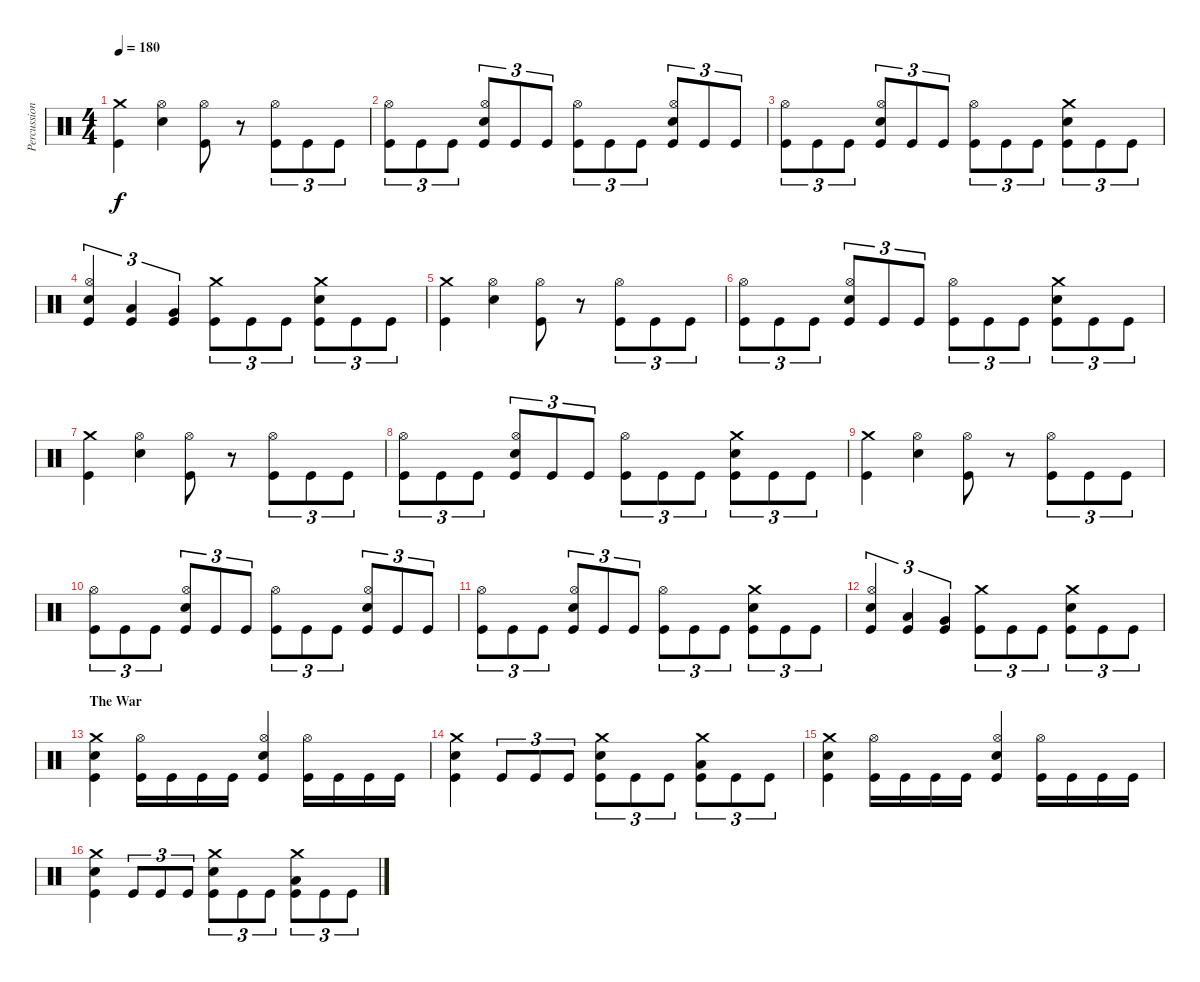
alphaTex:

\track ("Percussion" "Percussion") {instrument percussion}
\staff {score}
\articulation defaults
\ts (4 4)
\tempo 180
\clef neutral
\ks c
("Crash medium (hit)" "Kick (hit)").4{dy f} ("Hi-Hat (open)" "Electric Snare (hit)").4 ("Hi-Hat (open)" "Kick (hit)").8 r.8 ("Hi-Hat (open)" "Kick (hit)").8{tu (3 2)} "Kick (hit)".8{tu (3 2)} "Kick (hit)".8{tu (3 2)} |
("Hi-Hat (open)" "Kick (hit)").8{tu (3 2)} "Kick (hit)".8{tu (3 2)} "Kick (hit)".8{tu (3 2)} ("Hi-Hat (open)" "Electric Snare (hit)" "Kick (hit)").8{tu (3 2)} "Kick (hit)".8{tu (3 2)} "Kick (hit)".8{tu (3 2)} ("Hi-Hat (open)" "Kick (hit)").8{tu (3 2)} "Kick (hit)".8{tu (3 2)} "Kick (hit)".8{tu (3 2)} ("Hi-Hat (open)" "Electric Snare (hit)" "Kick (hit)").8{tu (3 2)} "Kick (hit)".8{tu (3 2)} "Kick (hit)".8{tu (3 2)} |
("Hi-Hat (open)" "Kick (hit)").8{tu (3 2)} "Kick (hit)".8{tu (3 2)} "Kick (hit)".8{tu (3 2)} ("Hi-Hat (open)" "Electric Snare (hit)" "Kick (hit)").8{tu (3 2)} "Kick (hit)".8{tu (3 2)} "Kick (hit)".8{tu (3 2)} ("Hi-Hat (open)" "Kick (hit)").8{tu (3 2)} "Kick (hit)".8{tu (3 2)} "Kick (hit)".8{tu (3 2)} ("Crash medium (hit)" "Electric Snare (hit)" "Kick (hit)").8{tu (3 2)} "Kick (hit)".8{tu (3 2)} "Kick (hit)".8{tu (3 2)} |
("Hi-Hat (open)" "Electric Snare (hit)" "Kick (hit)").4{tu (3 2)} ("Low Tom (hit)" "Kick (hit)").4{tu (3 2)} ("Very Low Tom (hit)" "Kick (hit)").4{tu (3 2)} ("Crash medium (hit)" "Kick (hit)").8{tu (3 2)} "Kick (hit)".8{tu (3 2)} "Kick (hit)".8{tu (3 2)} ("Crash medium (hit)" "Electric Snare (hit)" "Kick (hit)").8{tu (3 2)} "Kick (hit)".8{tu (3 2)} "Kick (hit)".8{tu (3 2)} |
("Crash medium (hit)" "Kick (hit)").4 ("Hi-Hat (open)" "Electric Snare (hit)").4 ("Hi-Hat (open)" "Kick (hit)").8 r.8 ("Hi-Hat (open)" "Kick (hit)").8{tu (3 2)} "Kick (hit)".8{tu (3 2)} "Kick (hit)".8{tu (3 2)} |
("Hi-Hat (open)" "Kick (hit)").8{tu (3 2)} "Kick (hit)".8{tu (3 2)} "Kick (hit)".8{tu (3 2)} ("Hi-Hat (open)" "Electric Snare (hit)" "Kick (hit)").8{tu (3 2)} "Kick (hit)".8{tu (3 2)} "Kick (hit)".8{tu (3 2)} ("Hi-Hat (open)" "Kick (hit)").8{tu (3 2)} "Kick (hit)".8{tu (3 2)} "Kick (hit)".8{tu (3 2)} ("Crash medium (hit)" "Electric Snare (hit)" "Kick (hit)").8{tu (3 2)} "Kick (hit)".8{tu (3 2)} "Kick (hit)".8{tu (3 2)} |
("Crash medium (hit)" "Kick (hit)").4 ("Hi-Hat (open)" "Electric Snare (hit)").4 ("Hi-Hat (open)" "Kick (hit)").8 r.8 ("Hi-Hat (open)" "Kick (hit)").8{tu (3 2)} "Kick (hit)".8{tu (3 2)} "Kick (hit)".8{tu (3 2)} |
("Hi-Hat (open)" "Kick (hit)").8{tu (3 2)} "Kick (hit)".8{tu (3 2)} "Kick (hit)".8{tu (3 2)} ("Hi-Hat (open)" "Electric Snare (hit)" "Kick (hit)").8{tu (3 2)} "Kick (hit)".8{tu (3 2)} "Kick (hit)".8{tu (3 2)} ("Hi-Hat (open)" "Kick (hit)").8{tu (3 2)} "Kick (hit)".8{tu (3 2)} "Kick (hit)".8{tu (3 2)} ("Crash medium (hit)" "Electric Snare (hit)" "Kick (hit)").8{tu (3 2)} "Kick (hit)".8{tu (3 2)} "Kick (hit)".8{tu (3 2)} |
("Crash medium (hit)" "Kick (hit)").4 ("Hi-Hat (open)" "Electric Snare (hit)").4 ("Hi-Hat (open)" "Kick (hit)").8 r.8 ("Hi-Hat (open)" "Kick (hit)").8{tu (3 2)} "Kick (hit)".8{tu (3 2)} "Kick (hit)".8{tu (3 2)} |
("Hi-Hat (open)" "Kick (hit)").8{tu (3 2)} "Kick (hit)".8{tu (3 2)} "Kick (hit)".8{tu (3 2)} ("Hi-Hat (open)" "Electric Snare (hit)" "Kick (hit)").8{tu (3 2)} "Kick (hit)".8{tu (3 2)} "Kick (hit)".8{tu (3 2)} ("Hi-Hat (open)" "Kick (hit)").8{tu (3 2)} "Kick (hit)".8{tu (3 2)} "Kick (hit)".8{tu (3 2)} ("Hi-Hat (open)" "Electric Snare (hit)" "Kick (hit)").8{tu (3 2)} "Kick (hit)".8{tu (3 2)} "Kick (hit)".8{tu (3 2)} |
("Hi-Hat (open)" "Kick (hit)").8{tu (3 2)} "Kick (hit)".8{tu (3 2)} "Kick (hit)".8{tu (3 2)} ("Hi-Hat (open)" "Electric Snare (hit)" "Kick (hit)").8{tu (3 2)} "Kick (hit)".8{tu (3 2)} "Kick (hit)".8{tu (3 2)} ("Hi-Hat (open)" "Kick (hit)").8{tu (3 2)} "Kick (hit)".8{tu (3 2)} "Kick (hit)".8{tu (3 2)} ("Crash medium (hit)" "Electric Snare (hit)" "Kick (hit)").8{tu (3 2)} "Kick (hit)".8{tu (3 2)} "Kick (hit)".8{tu (3 2)} |
("Hi-Hat (open)" "Electric Snare (hit)" "Kick (hit)").4{tu (3 2)} ("Low Tom (hit)" "Kick (hit)").4{tu (3 2)} ("Very Low Tom (hit)" "Kick (hit)").4{tu (3 2)} ("Crash medium (hit)" "Kick (hit)").8{tu (3 2)} "Kick (hit)".8{tu (3 2)} "Kick (hit)".8{tu (3 2)} ("Crash medium (hit)" "Electric Snare (hit)" "Kick (hit)").8{tu (3 2)} "Kick (hit)".8{tu (3 2)} "Kick (hit)".8{tu (3 2)} |
\section ("" "The War")
("Crash medium (hit)" "Snare (hit) 2" "Kick (hit)").4 ("Hi-Hat (open)" "Kick (hit)").16 "Kick (hit)".16 "Kick (hit)".16 "Kick (hit)".16 ("Hi-Hat (open)" "Snare (hit) 2" "Kick (hit)").4 ("Hi-Hat (open)" "Kick (hit)").16 "Kick (hit)".16 "Kick (hit)".16 "Kick (hit)".16 |
("Crash medium (hit)" "Electric Snare (hit)" "Kick (hit)").4 "Kick (hit)".8{tu (3 2)} "Kick (hit)".8{tu (3 2)} "Kick (hit)".8{tu (3 2)} ("Crash medium (hit)" "Electric Snare (hit)" "Kick (hit)").8{tu (3 2)} "Kick (hit)".8{tu (3 2)} "Kick (hit)".8{tu (3 2)} ("Crash medium (hit)" "Low Tom (hit)" "Kick (hit)").8{tu (3 2)} "Kick (hit)".8{tu (3 2)} "Kick (hit)".8{tu (3 2)} |
("Crash medium (hit)" "Snare (hit) 2" "Kick (hit)").4 ("Hi-Hat (open)" "Kick (hit)").16 "Kick (hit)".16 "Kick (hit)".16 "Kick (hit)".16 ("Hi-Hat (open)" "Snare (hit) 2" "Kick (hit)").4 ("Hi-Hat (open)" "Kick (hit)").16 "Kick (hit)".16 "Kick (hit)".16 "Kick (hit)".16 |
("Crash medium (hit)" "Electric Snare (hit)" "Kick (hit)").4 "Kick (hit)".8{tu (3 2)} "Kick (hit)".8{tu (3 2)} "Kick (hit)".8{tu (3 2)} ("Crash medium (hit)" "Electric Snare (hit)" "Kick (hit)").8{tu (3 2)} "Kick (hit)".8{tu (3 2)} "Kick (hit)".8{tu (3 2)} ("Crash medium (hit)" "Low Tom (hit)" "Kick (hit)").8{tu (3 2)} "Kick (hit)".8{tu (3 2)} "Kick (hit)".8{tu (3 2)}
